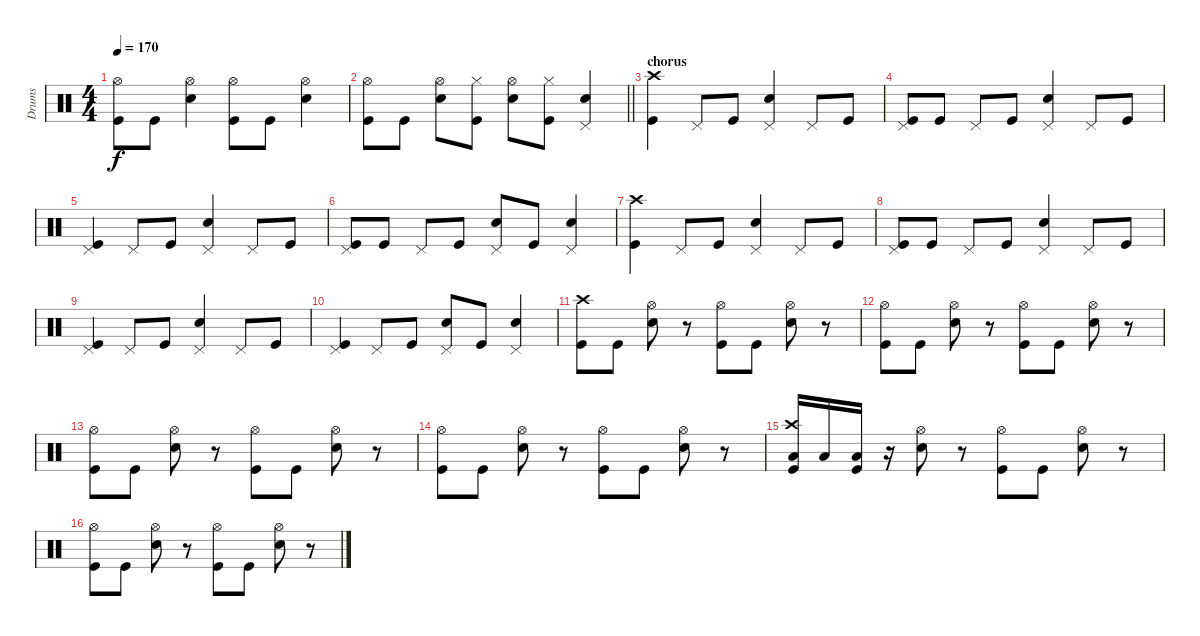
\track ("Drums" "Drums") {instrument percussion}
\staff {score}
\articulation defaults
\ts (4 4)
\tempo 170
\clef neutral
\ks c
("Hi-Hat (open)" "Kick (hit)").8{dy f} "Kick (hit)".8 ("Snare (hit) 2" "Hi-Hat (open)").4 ("Hi-Hat (open)" "Kick (hit)").8 "Kick (hit)".8 ("Snare (hit) 2" "Hi-Hat (open)").4 |
\barLineRight lightlight
("Hi-Hat (open)" "Kick (hit)").8 "Kick (hit)".8 ("Snare (hit) 2" "Hi-Hat (open)").8 ("Hi-Hat (closed)" "Kick (hit)").8 ("Snare (hit) 2" "Hi-Hat (open)").8 ("Hi-Hat (closed)" "Kick (hit)").8 ("Snare (hit) 2" "Pedal Hi-Hat (hit)").4 |
\section ("" "chorus")
("Crash high (hit)" "Kick (hit)").4 "Pedal Hi-Hat (hit)".8 "Kick (hit)".8 ("Snare (hit) 2" "Pedal Hi-Hat (hit)").4 "Pedal Hi-Hat (hit)".8 "Kick (hit)".8 |
("Pedal Hi-Hat (hit)" "Kick (hit)").8 "Kick (hit)".8 "Pedal Hi-Hat (hit)".8 "Kick (hit)".8 ("Snare (hit) 2" "Pedal Hi-Hat (hit)").4 "Pedal Hi-Hat (hit)".8 "Kick (hit)".8 |
("Pedal Hi-Hat (hit)" "Kick (hit)").4 "Pedal Hi-Hat (hit)".8 "Kick (hit)".8 ("Snare (hit) 2" "Pedal Hi-Hat (hit)").4 "Pedal Hi-Hat (hit)".8 "Kick (hit)".8 |
("Pedal Hi-Hat (hit)" "Kick (hit)").8 "Kick (hit)".8 "Pedal Hi-Hat (hit)".8 "Kick (hit)".8 ("Snare (hit) 2" "Pedal Hi-Hat (hit)").8 "Kick (hit)".8 ("Snare (hit) 2" "Pedal Hi-Hat (hit)").4 |
("Crash high (hit)" "Kick (hit)").4 "Pedal Hi-Hat (hit)".8 "Kick (hit)".8 ("Snare (hit) 2" "Pedal Hi-Hat (hit)").4 "Pedal Hi-Hat (hit)".8 "Kick (hit)".8 |
("Pedal Hi-Hat (hit)" "Kick (hit)").8 "Kick (hit)".8 "Pedal Hi-Hat (hit)".8 "Kick (hit)".8 ("Snare (hit) 2" "Pedal Hi-Hat (hit)").4 "Pedal Hi-Hat (hit)".8 "Kick (hit)".8 |
("Pedal Hi-Hat (hit)" "Kick (hit)").4 "Pedal Hi-Hat (hit)".8 "Kick (hit)".8 ("Snare (hit) 2" "Pedal Hi-Hat (hit)").4 "Pedal Hi-Hat (hit)".8 "Kick (hit)".8 |
("Pedal Hi-Hat (hit)" "Kick (hit)").4 "Pedal Hi-Hat (hit)".8 "Kick (hit)".8 ("Snare (hit) 2" "Pedal Hi-Hat (hit)").8 "Kick (hit)".8 ("Snare (hit) 2" "Pedal Hi-Hat (hit)").4 |
("Crash high (hit)" "Kick (hit)").8 "Kick (hit)".8 ("Snare (hit) 2" "Hi-Hat (open)").8 r.8 ("Hi-Hat (open)" "Kick (hit)").8 "Kick (hit)".8 ("Snare (hit) 2" "Hi-Hat (open)").8 r.8 |
("Hi-Hat (open)" "Kick (hit)").8 "Kick (hit)".8 ("Snare (hit) 2" "Hi-Hat (open)").8 r.8 ("Hi-Hat (open)" "Kick (hit)").8 "Kick (hit)".8 ("Snare (hit) 2" "Hi-Hat (open)").8 r.8 |
("Hi-Hat (open)" "Kick (hit)").8 "Kick (hit)".8 ("Snare (hit) 2" "Hi-Hat (open)").8 r.8 ("Hi-Hat (open)" "Kick (hit)").8 "Kick (hit)".8 ("Snare (hit) 2" "Hi-Hat (open)").8 r.8 |
("Hi-Hat (open)" "Kick (hit)").8 "Kick (hit)".8 ("Snare (hit) 2" "Hi-Hat (open)").8 r.8 ("Hi-Hat (open)" "Kick (hit)").8 "Kick (hit)".8 ("Snare (hit) 2" "Hi-Hat (open)").8 r.8 |
("Crash high (hit)" "Low Tom (hit)" "Kick (hit)").16 "Low Tom (hit)".16 ("Low Tom (hit)" "Kick (hit)").16 r.16 ("Snare (hit) 2" "Hi-Hat (open)").8 r.8 ("Hi-Hat (open)" "Kick (hit)").8 "Kick (hit)".8 ("Snare (hit) 2" "Hi-Hat (open)").8 r.8 |
("Hi-Hat (open)" "Kick (hit)").8 "Kick (hit)".8 ("Snare (hit) 2" "Hi-Hat (open)").8 r.8 ("Hi-Hat (open)" "Kick (hit)").8 "Kick (hit)".8 ("Snare (hit) 2" "Hi-Hat (open)").8 r.8
